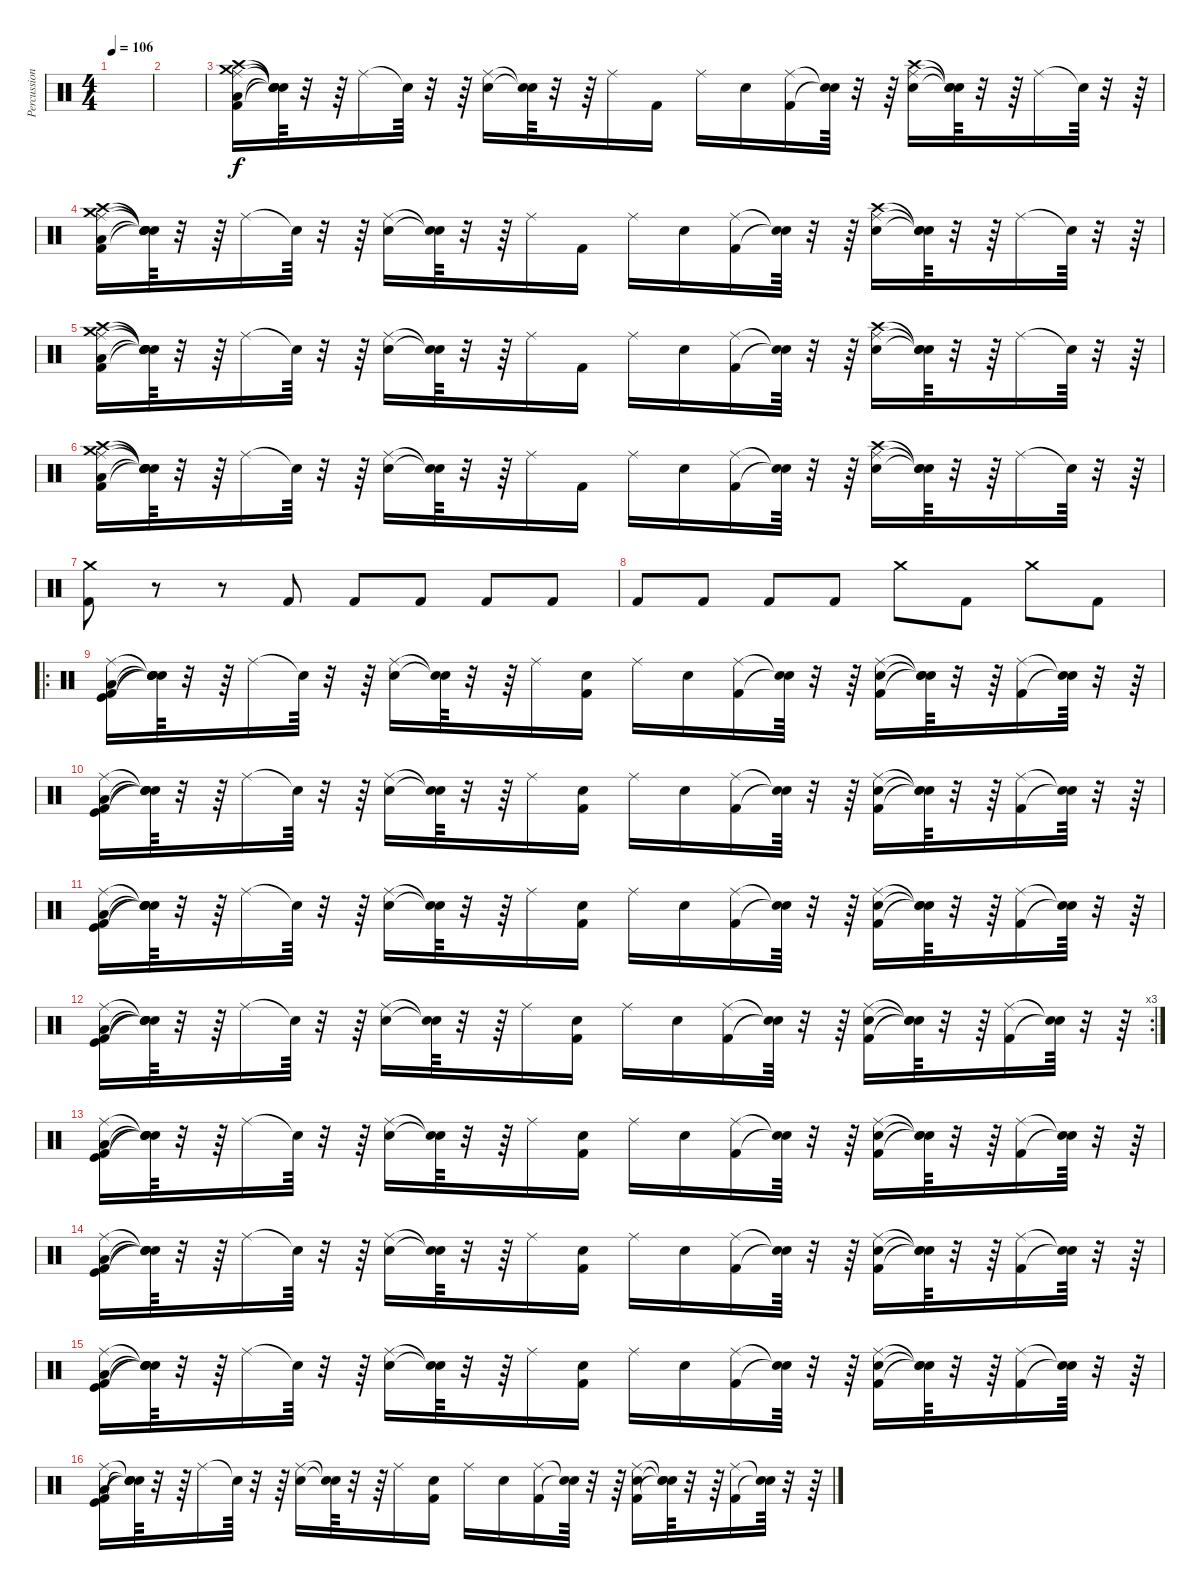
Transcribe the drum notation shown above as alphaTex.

\track ("Percussion" "Percussion") {instrument percussion}
\staff {score}
\articulation defaults
\ts (4 4)
\tempo 106
\clef neutral
\ks c
|
|
("Kick (hit) 2" "Low Tom (hit)" "Crash high (hit)" "Ride (middle)" "Crash medium (hit)").16 ("Snare (hit)"{t} "Snare (hit)"{t} "Snare (hit)"{t} "Snare (hit)"{t} "Snare (hit)"{t}).64 r.32 r.64 "Ride (middle)".16 "Snare (hit)"{t}.64 r.32 r.64 ("Snare (hit) 2" "Ride (middle)").16 ("Snare (hit)"{t} "Snare (hit)"{t}).64 r.32 r.64 "Ride (middle)".16 "Kick (hit) 2".16 "Ride (middle)".16 "Snare (hit) 2".16 ("Kick (hit) 2" "Ride (middle)").16 ("Snare (hit)"{t} "Snare (hit)"{t}).64 r.32 r.64 ("Ride (middle)" "Snare (hit) 2" "Crash high (hit)").16 ("Snare (hit)"{t} "Snare (hit)"{t} "Snare (hit)"{t}).64 r.32 r.64 "Ride (middle)".16 "Snare (hit)"{t}.64 r.32 r.64 |
("Kick (hit) 2" "Low Tom (hit)" "Crash high (hit)" "Ride (middle)" "Crash medium (hit)").16 ("Snare (hit)"{t} "Snare (hit)"{t} "Snare (hit)"{t} "Snare (hit)"{t} "Snare (hit)"{t}).64 r.32 r.64 "Ride (middle)".16 "Snare (hit)"{t}.64 r.32 r.64 ("Snare (hit) 2" "Ride (middle)").16 ("Snare (hit)"{t} "Snare (hit)"{t}).64 r.32 r.64 "Ride (middle)".16 "Kick (hit) 2".16 "Ride (middle)".16 "Snare (hit) 2".16 ("Kick (hit) 2" "Ride (middle)").16 ("Snare (hit)"{t} "Snare (hit)"{t}).64 r.32 r.64 ("Ride (middle)" "Snare (hit) 2" "Crash high (hit)").16 ("Snare (hit)"{t} "Snare (hit)"{t} "Snare (hit)"{t}).64 r.32 r.64 "Ride (middle)".16 "Snare (hit)"{t}.64 r.32 r.64 |
("Kick (hit) 2" "Low Tom (hit)" "Crash high (hit)" "Ride (middle)" "Crash medium (hit)").16 ("Snare (hit)"{t} "Snare (hit)"{t} "Snare (hit)"{t} "Snare (hit)"{t} "Snare (hit)"{t}).64 r.32 r.64 "Ride (middle)".16 "Snare (hit)"{t}.64 r.32 r.64 ("Snare (hit) 2" "Ride (middle)").16 ("Snare (hit)"{t} "Snare (hit)"{t}).64 r.32 r.64 "Ride (middle)".16 "Kick (hit) 2".16 "Ride (middle)".16 "Snare (hit) 2".16 ("Kick (hit) 2" "Ride (middle)").16 ("Snare (hit)"{t} "Snare (hit)"{t}).64 r.32 r.64 ("Ride (middle)" "Snare (hit) 2" "Crash high (hit)").16 ("Snare (hit)"{t} "Snare (hit)"{t} "Snare (hit)"{t}).64 r.32 r.64 "Ride (middle)".16 "Snare (hit)"{t}.64 r.32 r.64 |
("Kick (hit) 2" "Low Tom (hit)" "Crash high (hit)" "Ride (middle)" "Crash medium (hit)").16 ("Snare (hit)"{t} "Snare (hit)"{t} "Snare (hit)"{t} "Snare (hit)"{t} "Snare (hit)"{t}).64 r.32 r.64 "Ride (middle)".16 "Snare (hit)"{t}.64 r.32 r.64 ("Snare (hit) 2" "Ride (middle)").16 ("Snare (hit)"{t} "Snare (hit)"{t}).64 r.32 r.64 "Ride (middle)".16 "Kick (hit) 2".16 "Ride (middle)".16 "Snare (hit) 2".16 ("Kick (hit) 2" "Ride (middle)").16 ("Snare (hit)"{t} "Snare (hit)"{t}).64 r.32 r.64 ("Ride (middle)" "Snare (hit) 2" "Crash high (hit)").16 ("Snare (hit)"{t} "Snare (hit)"{t} "Snare (hit)"{t}).64 r.32 r.64 "Ride (middle)".16 "Snare (hit)"{t}.64 r.32 r.64 |
("Kick (hit) 2" "Crash medium (hit)").8 r.8 r.8 "Kick (hit) 2".8 "Kick (hit) 2".8 "Kick (hit) 2".8 "Kick (hit) 2".8 "Kick (hit) 2".8 |
"Kick (hit) 2".8 "Kick (hit) 2".8 "Kick (hit) 2".8 "Kick (hit) 2".8 "Crash medium (hit)".8 "Kick (hit) 2".8 "Crash medium (hit)".8 "Kick (hit) 2".8 |
\ro
("Kick (hit) 2" "Low Tom (hit)" "Kick (hit)" "Ride (middle)").16 ("Snare (hit)"{t} "Snare (hit)"{t} "Snare (hit)"{t} "Snare (hit)"{t}).64 r.32 r.64 "Ride (middle)".16 "Snare (hit)"{t}.64 r.32 r.64 ("Snare (hit) 2" "Ride (middle)").16 ("Snare (hit)"{t} "Snare (hit)"{t}).64 r.32 r.64 "Ride (middle)".16 ("Kick (hit) 2" "Snare (hit) 2").16 "Ride (middle)".16 "Snare (hit) 2".16 ("Kick (hit) 2" "Ride (middle)").16 ("Snare (hit)"{t} "Snare (hit)"{t}).64 r.32 r.64 ("Ride (middle)" "Snare (hit) 2" "Kick (hit) 2").16 ("Snare (hit)"{t} "Snare (hit)"{t} "Snare (hit)"{t}).64 r.32 r.64 ("Ride (middle)" "Kick (hit) 2").16 ("Snare (hit)"{t} "Snare (hit)"{t}).64 r.32 r.64 |
("Kick (hit) 2" "Low Tom (hit)" "Kick (hit)" "Ride (middle)").16 ("Snare (hit)"{t} "Snare (hit)"{t} "Snare (hit)"{t} "Snare (hit)"{t}).64 r.32 r.64 "Ride (middle)".16 "Snare (hit)"{t}.64 r.32 r.64 ("Snare (hit) 2" "Ride (middle)").16 ("Snare (hit)"{t} "Snare (hit)"{t}).64 r.32 r.64 "Ride (middle)".16 ("Kick (hit) 2" "Snare (hit) 2").16 "Ride (middle)".16 "Snare (hit) 2".16 ("Kick (hit) 2" "Ride (middle)").16 ("Snare (hit)"{t} "Snare (hit)"{t}).64 r.32 r.64 ("Ride (middle)" "Snare (hit) 2" "Kick (hit) 2").16 ("Snare (hit)"{t} "Snare (hit)"{t} "Snare (hit)"{t}).64 r.32 r.64 ("Ride (middle)" "Kick (hit) 2").16 ("Snare (hit)"{t} "Snare (hit)"{t}).64 r.32 r.64 |
("Kick (hit) 2" "Low Tom (hit)" "Kick (hit)" "Ride (middle)").16 ("Snare (hit)"{t} "Snare (hit)"{t} "Snare (hit)"{t} "Snare (hit)"{t}).64 r.32 r.64 "Ride (middle)".16 "Snare (hit)"{t}.64 r.32 r.64 ("Snare (hit) 2" "Ride (middle)").16 ("Snare (hit)"{t} "Snare (hit)"{t}).64 r.32 r.64 "Ride (middle)".16 ("Kick (hit) 2" "Snare (hit) 2").16 "Ride (middle)".16 "Snare (hit) 2".16 ("Kick (hit) 2" "Ride (middle)").16 ("Snare (hit)"{t} "Snare (hit)"{t}).64 r.32 r.64 ("Ride (middle)" "Snare (hit) 2" "Kick (hit) 2").16 ("Snare (hit)"{t} "Snare (hit)"{t} "Snare (hit)"{t}).64 r.32 r.64 ("Ride (middle)" "Kick (hit) 2").16 ("Snare (hit)"{t} "Snare (hit)"{t}).64 r.32 r.64 |
\rc 3
("Kick (hit) 2" "Low Tom (hit)" "Kick (hit)" "Ride (middle)").16 ("Snare (hit)"{t} "Snare (hit)"{t} "Snare (hit)"{t} "Snare (hit)"{t}).64 r.32 r.64 "Ride (middle)".16 "Snare (hit)"{t}.64 r.32 r.64 ("Snare (hit) 2" "Ride (middle)").16 ("Snare (hit)"{t} "Snare (hit)"{t}).64 r.32 r.64 "Ride (middle)".16 ("Kick (hit) 2" "Snare (hit) 2").16 "Ride (middle)".16 "Snare (hit) 2".16 ("Kick (hit) 2" "Ride (middle)").16 ("Snare (hit)"{t} "Snare (hit)"{t}).64 r.32 r.64 ("Ride (middle)" "Snare (hit) 2" "Kick (hit) 2").16 ("Snare (hit)"{t} "Snare (hit)"{t} "Snare (hit)"{t}).64 r.32 r.64 ("Ride (middle)" "Kick (hit) 2").16 ("Snare (hit)"{t} "Snare (hit)"{t}).64 r.32 r.64 |
("Kick (hit) 2" "Low Tom (hit)" "Kick (hit)" "Ride (middle)").16 ("Snare (hit)"{t} "Snare (hit)"{t} "Snare (hit)"{t} "Snare (hit)"{t}).64 r.32 r.64 "Ride (middle)".16 "Snare (hit)"{t}.64 r.32 r.64 ("Snare (hit) 2" "Ride (middle)").16 ("Snare (hit)"{t} "Snare (hit)"{t}).64 r.32 r.64 "Ride (middle)".16 ("Kick (hit) 2" "Snare (hit) 2").16 "Ride (middle)".16 "Snare (hit) 2".16 ("Kick (hit) 2" "Ride (middle)").16 ("Snare (hit)"{t} "Snare (hit)"{t}).64 r.32 r.64 ("Ride (middle)" "Snare (hit) 2" "Kick (hit) 2").16 ("Snare (hit)"{t} "Snare (hit)"{t} "Snare (hit)"{t}).64 r.32 r.64 ("Ride (middle)" "Kick (hit) 2").16 ("Snare (hit)"{t} "Snare (hit)"{t}).64 r.32 r.64 |
("Kick (hit) 2" "Low Tom (hit)" "Kick (hit)" "Ride (middle)").16 ("Snare (hit)"{t} "Snare (hit)"{t} "Snare (hit)"{t} "Snare (hit)"{t}).64 r.32 r.64 "Ride (middle)".16 "Snare (hit)"{t}.64 r.32 r.64 ("Snare (hit) 2" "Ride (middle)").16 ("Snare (hit)"{t} "Snare (hit)"{t}).64 r.32 r.64 "Ride (middle)".16 ("Kick (hit) 2" "Snare (hit) 2").16 "Ride (middle)".16 "Snare (hit) 2".16 ("Kick (hit) 2" "Ride (middle)").16 ("Snare (hit)"{t} "Snare (hit)"{t}).64 r.32 r.64 ("Ride (middle)" "Snare (hit) 2" "Kick (hit) 2").16 ("Snare (hit)"{t} "Snare (hit)"{t} "Snare (hit)"{t}).64 r.32 r.64 ("Ride (middle)" "Kick (hit) 2").16 ("Snare (hit)"{t} "Snare (hit)"{t}).64 r.32 r.64 |
("Kick (hit) 2" "Low Tom (hit)" "Kick (hit)" "Ride (middle)").16 ("Snare (hit)"{t} "Snare (hit)"{t} "Snare (hit)"{t} "Snare (hit)"{t}).64 r.32 r.64 "Ride (middle)".16 "Snare (hit)"{t}.64 r.32 r.64 ("Snare (hit) 2" "Ride (middle)").16 ("Snare (hit)"{t} "Snare (hit)"{t}).64 r.32 r.64 "Ride (middle)".16 ("Kick (hit) 2" "Snare (hit) 2").16 "Ride (middle)".16 "Snare (hit) 2".16 ("Kick (hit) 2" "Ride (middle)").16 ("Snare (hit)"{t} "Snare (hit)"{t}).64 r.32 r.64 ("Ride (middle)" "Snare (hit) 2" "Kick (hit) 2").16 ("Snare (hit)"{t} "Snare (hit)"{t} "Snare (hit)"{t}).64 r.32 r.64 ("Ride (middle)" "Kick (hit) 2").16 ("Snare (hit)"{t} "Snare (hit)"{t}).64 r.32 r.64 |
("Kick (hit) 2" "Low Tom (hit)" "Kick (hit)" "Ride (middle)").16 ("Snare (hit)"{t} "Snare (hit)"{t} "Snare (hit)"{t} "Snare (hit)"{t}).64 r.32 r.64 "Ride (middle)".16 "Snare (hit)"{t}.64 r.32 r.64 ("Snare (hit) 2" "Ride (middle)").16 ("Snare (hit)"{t} "Snare (hit)"{t}).64 r.32 r.64 "Ride (middle)".16 ("Kick (hit) 2" "Snare (hit) 2").16 "Ride (middle)".16 "Snare (hit) 2".16 ("Kick (hit) 2" "Ride (middle)").16 ("Snare (hit)"{t} "Snare (hit)"{t}).64 r.32 r.64 ("Ride (middle)" "Snare (hit) 2" "Kick (hit) 2").16 ("Snare (hit)"{t} "Snare (hit)"{t} "Snare (hit)"{t}).64 r.32 r.64 ("Ride (middle)" "Kick (hit) 2").16 ("Snare (hit)"{t} "Snare (hit)"{t}).64 r.32 r.64
